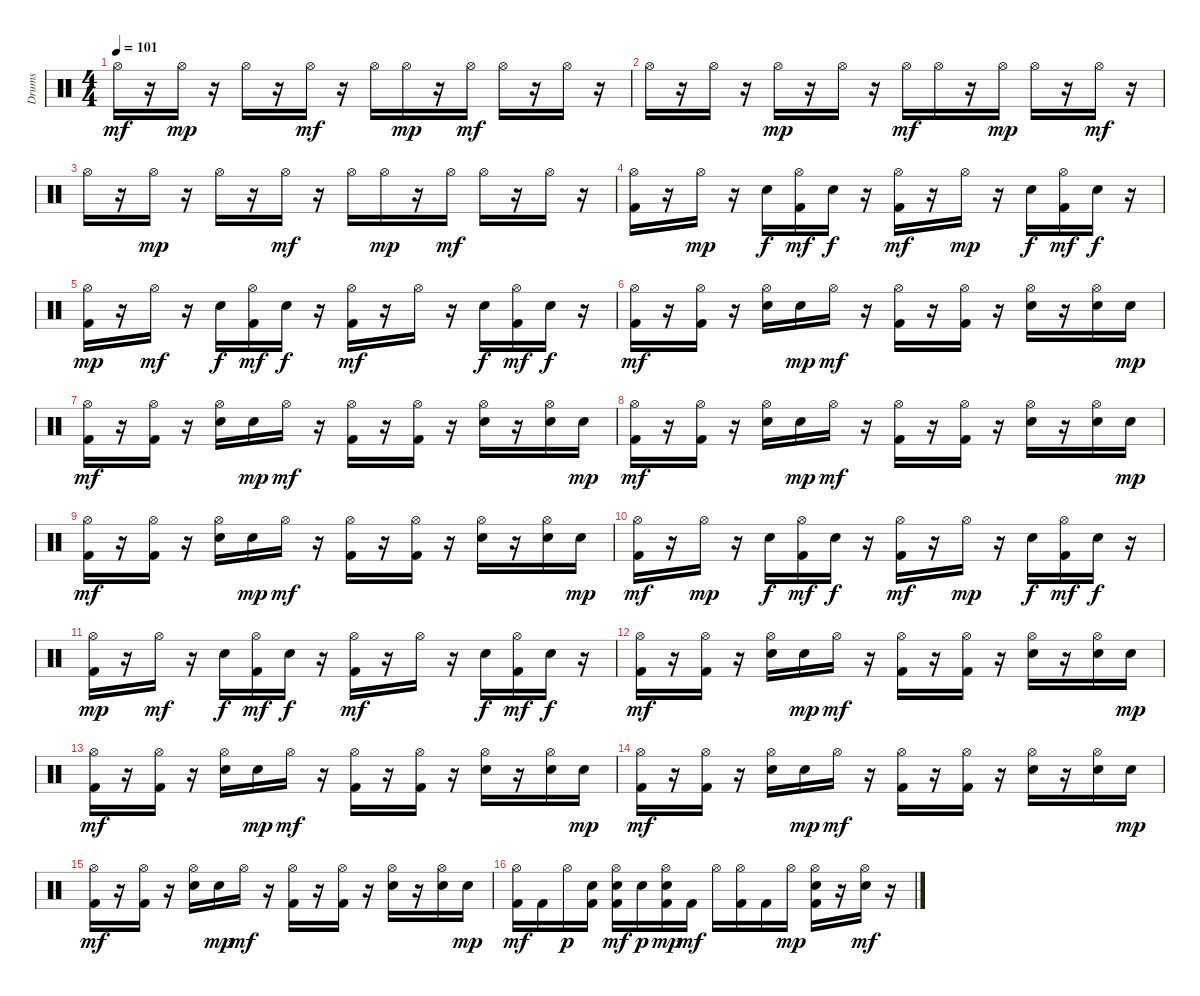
\track ("Drums" "Drums") {instrument percussion}
\staff {score}
\articulation defaults
\ts (4 4)
\tempo 101
\clef neutral
\ks c "Hi-Hat (open)".16{dy mf}
r.16 "Hi-Hat (open)".16{dy mp} r.16 "Hi-Hat (open)".16 r.16 "Hi-Hat (open)".16{dy mf} r.16 "Hi-Hat (open)".16 "Hi-Hat (open)".16{dy mp} r.16 "Hi-Hat (open)".16{dy mf} "Hi-Hat (open)".16 r.16 "Hi-Hat (open)".16 r.16 |
"Hi-Hat (open)".16 r.16 "Hi-Hat (open)".16 r.16 "Hi-Hat (open)".16{dy mp} r.16 "Hi-Hat (open)".16 r.16 "Hi-Hat (open)".16{dy mf} "Hi-Hat (open)".16 r.16 "Hi-Hat (open)".16{dy mp} "Hi-Hat (open)".16 r.16 "Hi-Hat (open)".16{dy mf} r.16 |
"Hi-Hat (open)".16 r.16 "Hi-Hat (open)".16{dy mp} r.16 "Hi-Hat (open)".16 r.16 "Hi-Hat (open)".16{dy mf} r.16 "Hi-Hat (open)".16 "Hi-Hat (open)".16{dy mp} r.16 "Hi-Hat (open)".16{dy mf} "Hi-Hat (open)".16 r.16 "Hi-Hat (open)".16 r.16 |
("Kick (hit) 2" "Hi-Hat (open)").16 r.16 "Hi-Hat (open)".16{dy mp} r.16 "Snare (hit) 2".16{dy f} ("Kick (hit) 2" "Hi-Hat (open)").16{dy mf} "Snare (hit) 2".16{dy f} r.16 ("Kick (hit) 2" "Hi-Hat (open)").16{dy mf} r.16 "Hi-Hat (open)".16{dy mp} r.16 "Snare (hit) 2".16{dy f} ("Kick (hit) 2" "Hi-Hat (open)").16{dy mf} "Snare (hit) 2".16{dy f} r.16 |
("Kick (hit) 2" "Hi-Hat (open)").16{dy mp} r.16 "Hi-Hat (open)".16{dy mf} r.16 "Snare (hit) 2".16{dy f} ("Kick (hit) 2" "Hi-Hat (open)").16{dy mf} "Snare (hit) 2".16{dy f} r.16 ("Kick (hit) 2" "Hi-Hat (open)").16{dy mf} r.16 "Hi-Hat (open)".16 r.16 "Snare (hit) 2".16{dy f} ("Kick (hit) 2" "Hi-Hat (open)").16{dy mf} "Snare (hit) 2".16{dy f} r.16 |
("Hi-Hat (open)" "Kick (hit) 2").16{dy mf} r.16 ("Kick (hit) 2" "Hi-Hat (open)").16 r.16 ("Snare (hit) 2" "Hi-Hat (open)").16 "Snare (hit) 2".16{dy mp} "Hi-Hat (open)".16{dy mf} r.16 ("Hi-Hat (open)" "Kick (hit) 2").16 r.16 ("Hi-Hat (open)" "Kick (hit) 2").16 r.16 ("Snare (hit) 2" "Hi-Hat (open)").16 r.16 ("Snare (hit) 2" "Hi-Hat (open)").16 "Snare (hit) 2".16{dy mp} |
("Kick (hit) 2" "Hi-Hat (open)").16{dy mf} r.16 ("Kick (hit) 2" "Hi-Hat (open)").16 r.16 ("Snare (hit) 2" "Hi-Hat (open)").16 "Snare (hit) 2".16{dy mp} "Hi-Hat (open)".16{dy mf} r.16 ("Kick (hit) 2" "Hi-Hat (open)").16 r.16 ("Kick (hit) 2" "Hi-Hat (open)").16 r.16 ("Snare (hit) 2" "Hi-Hat (open)").16 r.16 ("Snare (hit) 2" "Hi-Hat (open)").16 "Snare (hit) 2".16{dy mp} |
("Hi-Hat (open)" "Kick (hit) 2").16{dy mf} r.16 ("Kick (hit) 2" "Hi-Hat (open)").16 r.16 ("Snare (hit) 2" "Hi-Hat (open)").16 "Snare (hit) 2".16{dy mp} "Hi-Hat (open)".16{dy mf} r.16 ("Hi-Hat (open)" "Kick (hit) 2").16 r.16 ("Hi-Hat (open)" "Kick (hit) 2").16 r.16 ("Snare (hit) 2" "Hi-Hat (open)").16 r.16 ("Snare (hit) 2" "Hi-Hat (open)").16 "Snare (hit) 2".16{dy mp} |
("Kick (hit) 2" "Hi-Hat (open)").16{dy mf} r.16 ("Kick (hit) 2" "Hi-Hat (open)").16 r.16 ("Snare (hit) 2" "Hi-Hat (open)").16 "Snare (hit) 2".16{dy mp} "Hi-Hat (open)".16{dy mf} r.16 ("Kick (hit) 2" "Hi-Hat (open)").16 r.16 ("Kick (hit) 2" "Hi-Hat (open)").16 r.16 ("Snare (hit) 2" "Hi-Hat (open)").16 r.16 ("Snare (hit) 2" "Hi-Hat (open)").16 "Snare (hit) 2".16{dy mp} |
("Kick (hit) 2" "Hi-Hat (open)").16{dy mf} r.16 "Hi-Hat (open)".16{dy mp} r.16 "Snare (hit) 2".16{dy f} ("Kick (hit) 2" "Hi-Hat (open)").16{dy mf} "Snare (hit) 2".16{dy f} r.16 ("Kick (hit) 2" "Hi-Hat (open)").16{dy mf} r.16 "Hi-Hat (open)".16{dy mp} r.16 "Snare (hit) 2".16{dy f} ("Kick (hit) 2" "Hi-Hat (open)").16{dy mf} "Snare (hit) 2".16{dy f} r.16 |
("Kick (hit) 2" "Hi-Hat (open)").16{dy mp} r.16 "Hi-Hat (open)".16{dy mf} r.16 "Snare (hit) 2".16{dy f} ("Kick (hit) 2" "Hi-Hat (open)").16{dy mf} "Snare (hit) 2".16{dy f} r.16 ("Kick (hit) 2" "Hi-Hat (open)").16{dy mf} r.16 "Hi-Hat (open)".16 r.16 "Snare (hit) 2".16{dy f} ("Kick (hit) 2" "Hi-Hat (open)").16{dy mf} "Snare (hit) 2".16{dy f} r.16 |
("Hi-Hat (open)" "Kick (hit) 2").16{dy mf} r.16 ("Kick (hit) 2" "Hi-Hat (open)").16 r.16 ("Snare (hit) 2" "Hi-Hat (open)").16 "Snare (hit) 2".16{dy mp} "Hi-Hat (open)".16{dy mf} r.16 ("Hi-Hat (open)" "Kick (hit) 2").16 r.16 ("Hi-Hat (open)" "Kick (hit) 2").16 r.16 ("Snare (hit) 2" "Hi-Hat (open)").16 r.16 ("Snare (hit) 2" "Hi-Hat (open)").16 "Snare (hit) 2".16{dy mp} |
("Kick (hit) 2" "Hi-Hat (open)").16{dy mf} r.16 ("Kick (hit) 2" "Hi-Hat (open)").16 r.16 ("Snare (hit) 2" "Hi-Hat (open)").16 "Snare (hit) 2".16{dy mp} "Hi-Hat (open)".16{dy mf} r.16 ("Kick (hit) 2" "Hi-Hat (open)").16 r.16 ("Kick (hit) 2" "Hi-Hat (open)").16 r.16 ("Snare (hit) 2" "Hi-Hat (open)").16 r.16 ("Snare (hit) 2" "Hi-Hat (open)").16 "Snare (hit) 2".16{dy mp} |
("Hi-Hat (open)" "Kick (hit) 2").16{dy mf} r.16 ("Kick (hit) 2" "Hi-Hat (open)").16 r.16 ("Snare (hit) 2" "Hi-Hat (open)").16 "Snare (hit) 2".16{dy mp} "Hi-Hat (open)".16{dy mf} r.16 ("Hi-Hat (open)" "Kick (hit) 2").16 r.16 ("Hi-Hat (open)" "Kick (hit) 2").16 r.16 ("Snare (hit) 2" "Hi-Hat (open)").16 r.16 ("Snare (hit) 2" "Hi-Hat (open)").16 "Snare (hit) 2".16{dy mp} |
("Kick (hit) 2" "Hi-Hat (open)").16{dy mf} r.16 ("Kick (hit) 2" "Hi-Hat (open)").16 r.16 ("Snare (hit) 2" "Hi-Hat (open)").16 "Snare (hit) 2".16{dy mp} "Hi-Hat (open)".16{dy mf} r.16 ("Kick (hit) 2" "Hi-Hat (open)").16 r.16 ("Kick (hit) 2" "Hi-Hat (open)").16 r.16 ("Snare (hit) 2" "Hi-Hat (open)").16 r.16 ("Snare (hit) 2" "Hi-Hat (open)").16 "Snare (hit) 2".16{dy mp} |
("Hi-Hat (open)" "Kick (hit) 2").16{dy mf} "Kick (hit) 2".16 "Hi-Hat (open)".16{dy p} ("Kick (hit) 2" "Snare (hit) 2").16 ("Snare (hit) 2" "Hi-Hat (open)" "Kick (hit) 2").16{dy mf} "Snare (hit) 2".16{dy p} ("Hi-Hat (open)" "Snare (hit) 2" "Kick (hit) 2").16{dy mp} "Kick (hit) 2".16{dy mf} "Hi-Hat (open)".16 ("Hi-Hat (open)" "Kick (hit) 2").16 "Kick (hit) 2".16 "Hi-Hat (open)".16{dy mp} ("Kick (hit) 2" "Snare (hit) 2" "Hi-Hat (open)").16 r.16 ("Snare (hit) 2" "Hi-Hat (open)").16{dy mf} r.16
